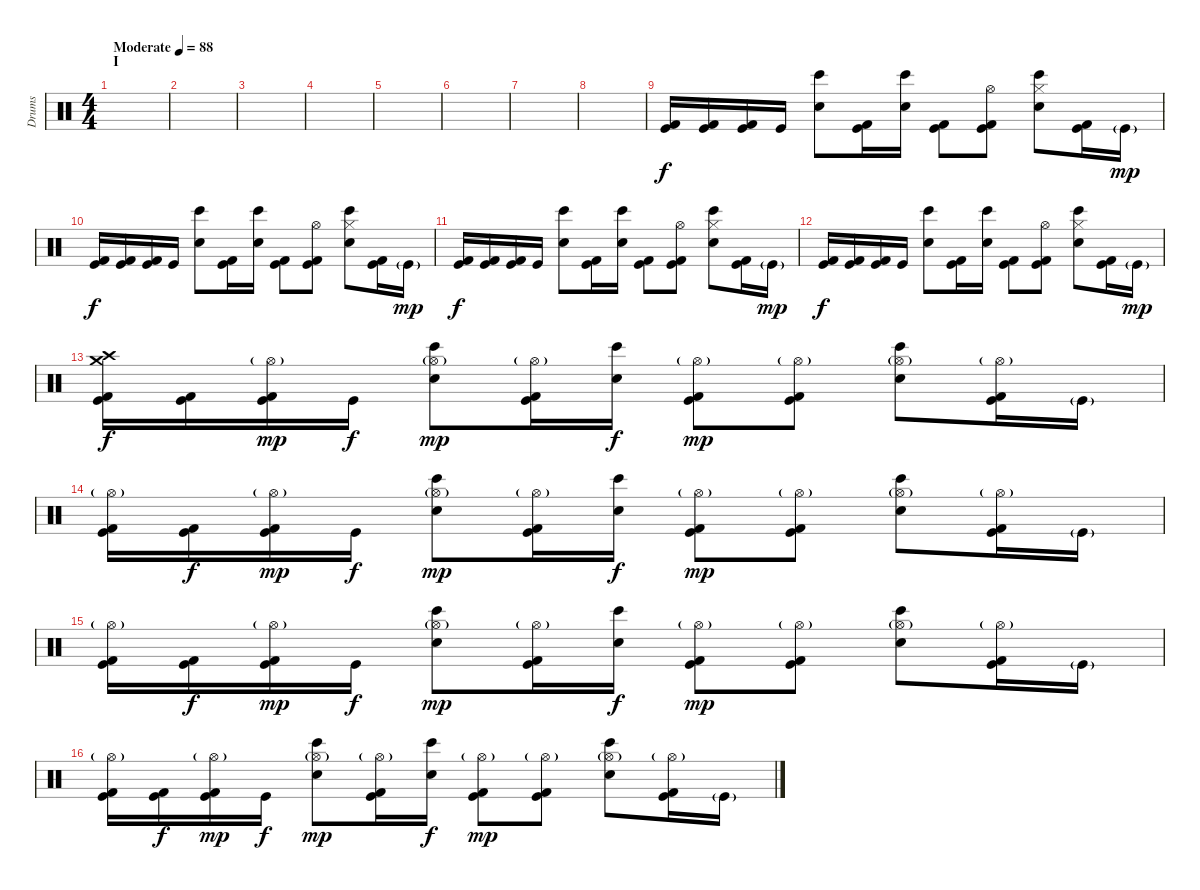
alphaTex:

\track ("Drums" "Drums") {instrument percussion}
\staff {score}
\articulation defaults
\ts (4 4)
\section ("" "I")
\tempo (88 "Moderate")
\clef neutral
\ks c
|
|
|
|
|
|
|
|
("Kick (hit) 2" "Kick (hit)").16 ("Kick (hit) 2" "Kick (hit)").16 ("Kick (hit) 2" "Kick (hit)").16 "Kick (hit)".16 ("Bongo High (hit)" "Snare (hit) 2").8 ("Kick (hit) 2" "Kick (hit)").16 ("Bongo High (hit)" "Snare (hit) 2").16 ("Kick (hit) 2" "Kick (hit)").8 ("Hi-Hat (open)" "Kick (hit) 2" "Kick (hit)").8 ("Bongo High (hit)" "Snare (hit) 2" "Hi-Hat (closed)").8 ("Kick (hit) 2" "Kick (hit)").16 "Kick (hit)"{g}.16{dy mp} |
("Kick (hit) 2" "Kick (hit)").16{dy f} ("Kick (hit) 2" "Kick (hit)").16 ("Kick (hit) 2" "Kick (hit)").16 "Kick (hit)".16 ("Bongo High (hit)" "Snare (hit) 2").8 ("Kick (hit) 2" "Kick (hit)").16 ("Bongo High (hit)" "Snare (hit) 2").16 ("Kick (hit) 2" "Kick (hit)").8 ("Hi-Hat (open)" "Kick (hit) 2" "Kick (hit)").8 ("Bongo High (hit)" "Snare (hit) 2" "Hi-Hat (closed)").8 ("Kick (hit) 2" "Kick (hit)").16 "Kick (hit)"{g}.16{dy mp} |
("Kick (hit) 2" "Kick (hit)").16{dy f} ("Kick (hit) 2" "Kick (hit)").16 ("Kick (hit) 2" "Kick (hit)").16 "Kick (hit)".16 ("Bongo High (hit)" "Snare (hit) 2").8 ("Kick (hit) 2" "Kick (hit)").16 ("Bongo High (hit)" "Snare (hit) 2").16 ("Kick (hit) 2" "Kick (hit)").8 ("Hi-Hat (open)" "Kick (hit) 2" "Kick (hit)").8 ("Bongo High (hit)" "Snare (hit) 2" "Hi-Hat (closed)").8 ("Kick (hit) 2" "Kick (hit)").16 "Kick (hit)"{g}.16{dy mp} |
("Kick (hit) 2" "Kick (hit)").16{dy f} ("Kick (hit) 2" "Kick (hit)").16 ("Kick (hit) 2" "Kick (hit)").16 "Kick (hit)".16 ("Bongo High (hit)" "Snare (hit) 2").8 ("Kick (hit) 2" "Kick (hit)").16 ("Bongo High (hit)" "Snare (hit) 2").16 ("Kick (hit) 2" "Kick (hit)").8 ("Hi-Hat (open)" "Kick (hit) 2" "Kick (hit)").8 ("Bongo High (hit)" "Snare (hit) 2" "Hi-Hat (closed)").8 ("Kick (hit) 2" "Kick (hit)").16 "Kick (hit)"{g}.16{dy mp} |
("Crash medium (hit)" "Crash high (hit)" "Kick (hit) 2" "Kick (hit)").16{dy f} ("Kick (hit) 2" "Kick (hit)").16 ("Hi-Hat (open)"{g} "Kick (hit) 2" "Kick (hit)").16{dy mp} "Kick (hit)".16{dy f} ("Hi-Hat (open)"{g} "Bongo High (hit)" "Snare (hit) 2").8{dy mp} ("Hi-Hat (open)"{g} "Kick (hit) 2" "Kick (hit)").16 ("Bongo High (hit)" "Snare (hit) 2").16{dy f} ("Hi-Hat (open)"{g} "Kick (hit) 2" "Kick (hit)").8{dy mp} ("Hi-Hat (open)"{g} "Kick (hit) 2" "Kick (hit)").8 ("Hi-Hat (open)"{g} "Bongo High (hit)" "Snare (hit) 2").8 ("Hi-Hat (open)"{g} "Kick (hit) 2" "Kick (hit)").16 "Kick (hit)"{g}.16 |
("Hi-Hat (open)"{g} "Kick (hit) 2" "Kick (hit)").16 ("Kick (hit) 2" "Kick (hit)").16{dy f} ("Hi-Hat (open)"{g} "Kick (hit) 2" "Kick (hit)").16{dy mp} "Kick (hit)".16{dy f} ("Hi-Hat (open)"{g} "Bongo High (hit)" "Snare (hit) 2").8{dy mp} ("Hi-Hat (open)"{g} "Kick (hit) 2" "Kick (hit)").16 ("Bongo High (hit)" "Snare (hit) 2").16{dy f} ("Hi-Hat (open)"{g} "Kick (hit) 2" "Kick (hit)").8{dy mp} ("Hi-Hat (open)"{g} "Kick (hit) 2" "Kick (hit)").8 ("Hi-Hat (open)"{g} "Bongo High (hit)" "Snare (hit) 2").8 ("Hi-Hat (open)"{g} "Kick (hit) 2" "Kick (hit)").16 "Kick (hit)"{g}.16 |
("Hi-Hat (open)"{g} "Kick (hit) 2" "Kick (hit)").16 ("Kick (hit) 2" "Kick (hit)").16{dy f} ("Hi-Hat (open)"{g} "Kick (hit) 2" "Kick (hit)").16{dy mp} "Kick (hit)".16{dy f} ("Hi-Hat (open)"{g} "Bongo High (hit)" "Snare (hit) 2").8{dy mp} ("Hi-Hat (open)"{g} "Kick (hit) 2" "Kick (hit)").16 ("Bongo High (hit)" "Snare (hit) 2").16{dy f} ("Hi-Hat (open)"{g} "Kick (hit) 2" "Kick (hit)").8{dy mp} ("Hi-Hat (open)"{g} "Kick (hit) 2" "Kick (hit)").8 ("Hi-Hat (open)"{g} "Bongo High (hit)" "Snare (hit) 2").8 ("Hi-Hat (open)"{g} "Kick (hit) 2" "Kick (hit)").16 "Kick (hit)"{g}.16 |
("Hi-Hat (open)"{g} "Kick (hit) 2" "Kick (hit)").16 ("Kick (hit) 2" "Kick (hit)").16{dy f} ("Hi-Hat (open)"{g} "Kick (hit) 2" "Kick (hit)").16{dy mp} "Kick (hit)".16{dy f} ("Hi-Hat (open)"{g} "Bongo High (hit)" "Snare (hit) 2").8{dy mp} ("Hi-Hat (open)"{g} "Kick (hit) 2" "Kick (hit)").16 ("Bongo High (hit)" "Snare (hit) 2").16{dy f} ("Hi-Hat (open)"{g} "Kick (hit) 2" "Kick (hit)").8{dy mp} ("Hi-Hat (open)"{g} "Kick (hit) 2" "Kick (hit)").8 ("Hi-Hat (open)"{g} "Bongo High (hit)" "Snare (hit) 2").8 ("Hi-Hat (open)"{g} "Kick (hit) 2" "Kick (hit)").16 "Kick (hit)"{g}.16
